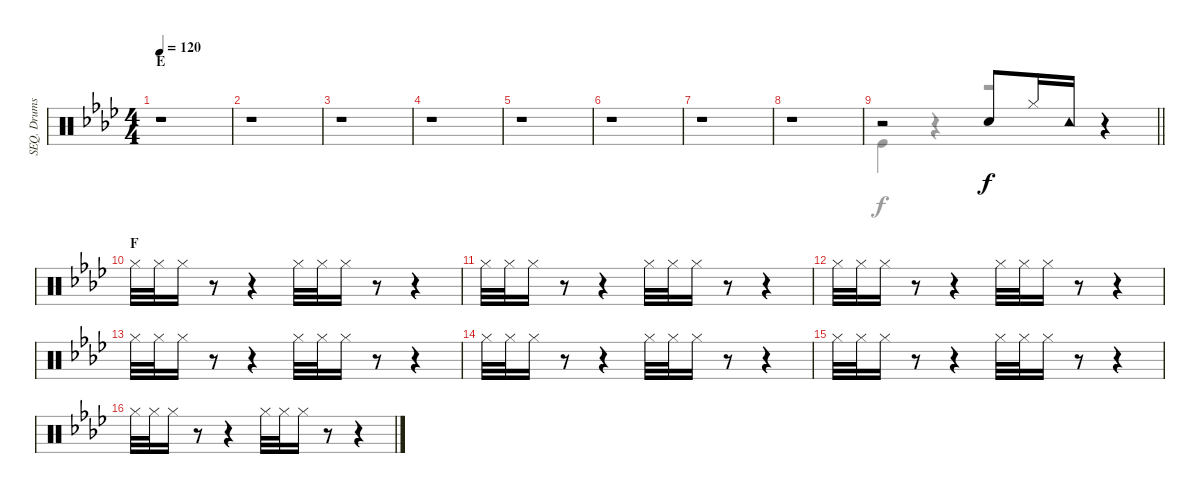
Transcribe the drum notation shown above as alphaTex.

\track ("SEQ. Drums" "SEQ. Drums") {instrument percussion}
\staff {score}
\articulation defaults
\voice
\ts (4 4)
\section ("" "E")
\tempo 120
\clef neutral
\ks ab
r.1{dy f} |
r.1 |
r.1 |
r.1 |
r.1 |
r.1 |
r.1 |
r.1 |
\barLineRight lightlight
r.2 "Electric Snare (hit)".8 "Hi-Hat (closed)".16 "Tambourine (hit)".16 r.4 |
\section ("" "F")
"Hi-Hat (closed)".32 "Hi-Hat (closed)".32 "Hi-Hat (closed)".16 r.8 r.4 "Hi-Hat (closed)".32 "Hi-Hat (closed)".32 "Hi-Hat (closed)".16 r.8 r.4 |
"Hi-Hat (closed)".32 "Hi-Hat (closed)".32 "Hi-Hat (closed)".16 r.8 r.4 "Hi-Hat (closed)".32 "Hi-Hat (closed)".32 "Hi-Hat (closed)".16 r.8 r.4 |
"Hi-Hat (closed)".32 "Hi-Hat (closed)".32 "Hi-Hat (closed)".16 r.8 r.4 "Hi-Hat (closed)".32 "Hi-Hat (closed)".32 "Hi-Hat (closed)".16 r.8 r.4 |
"Hi-Hat (closed)".32 "Hi-Hat (closed)".32 "Hi-Hat (closed)".16 r.8 r.4 "Hi-Hat (closed)".32 "Hi-Hat (closed)".32 "Hi-Hat (closed)".16 r.8 r.4 |
"Hi-Hat (closed)".32 "Hi-Hat (closed)".32 "Hi-Hat (closed)".16 r.8 r.4 "Hi-Hat (closed)".32 "Hi-Hat (closed)".32 "Hi-Hat (closed)".16 r.8 r.4 |
"Hi-Hat (closed)".32 "Hi-Hat (closed)".32 "Hi-Hat (closed)".16 r.8 r.4 "Hi-Hat (closed)".32 "Hi-Hat (closed)".32 "Hi-Hat (closed)".16 r.8 r.4 |
"Hi-Hat (closed)".32 "Hi-Hat (closed)".32 "Hi-Hat (closed)".16 r.8 r.4 "Hi-Hat (closed)".32 "Hi-Hat (closed)".32 "Hi-Hat (closed)".16 r.8 r.4
\voice
\clef neutral
\ottava regular
\simile none
\ks ab
|
|
|
|
|
|
|
|
\barLineRight lightlight "Kick (hit)".4
r.4 r.2 |
|
|
|
|
|
|
